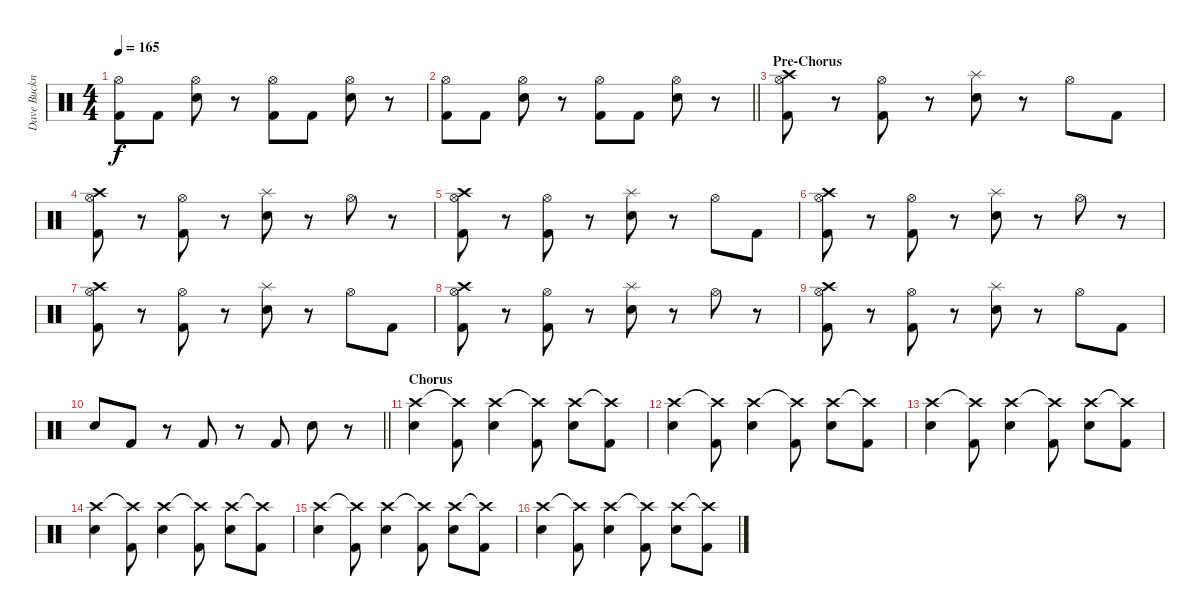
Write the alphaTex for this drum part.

\track ("Dave Buckner " "Dave Buckn") {instrument percussion}
\staff {score}
\articulation defaults
\ts (4 4)
\tempo 165
\clef neutral
\ks c
("Hi-Hat (open)" "Kick (hit) 2").8{dy f} "Kick (hit) 2".8 ("Hi-Hat (open)" "Snare (hit) 2").8 r.8 ("Hi-Hat (open)" "Kick (hit) 2").8 "Kick (hit) 2".8 ("Hi-Hat (open)" "Snare (hit) 2").8 r.8 |
\barLineRight lightlight
("Hi-Hat (open)" "Kick (hit) 2").8 "Kick (hit) 2".8 ("Hi-Hat (open)" "Snare (hit) 2").8 r.8 ("Hi-Hat (open)" "Kick (hit) 2").8 "Kick (hit) 2".8 ("Hi-Hat (open)" "Snare (hit) 2").8 r.8 |
\section ("" "Pre-Chorus")
("Crash high (hit)" "Hi-Hat (open)" "Kick (hit) 2").8 r.8 ("Hi-Hat (open)" "Kick (hit) 2").8 r.8 ("Splash (hit)" "Snare (hit) 2").8 r.8 "Hi-Hat (open)".8 "Kick (hit) 2".8 |
("Crash high (hit)" "Hi-Hat (open)" "Kick (hit) 2").8 r.8 ("Hi-Hat (open)" "Kick (hit) 2").8 r.8 ("Splash (hit)" "Snare (hit) 2").8 r.8 "Hi-Hat (open)".8 r.8 |
("Crash high (hit)" "Hi-Hat (open)" "Kick (hit) 2").8 r.8 ("Hi-Hat (open)" "Kick (hit) 2").8 r.8 ("Splash (hit)" "Snare (hit) 2").8 r.8 "Hi-Hat (open)".8 "Kick (hit) 2".8 |
("Crash high (hit)" "Hi-Hat (open)" "Kick (hit) 2").8 r.8 ("Hi-Hat (open)" "Kick (hit) 2").8 r.8 ("Splash (hit)" "Snare (hit) 2").8 r.8 "Hi-Hat (open)".8 r.8 |
("Crash high (hit)" "Hi-Hat (open)" "Kick (hit) 2").8 r.8 ("Hi-Hat (open)" "Kick (hit) 2").8 r.8 ("Splash (hit)" "Snare (hit) 2").8 r.8 "Hi-Hat (open)".8 "Kick (hit) 2".8 |
("Crash high (hit)" "Hi-Hat (open)" "Kick (hit) 2").8 r.8 ("Hi-Hat (open)" "Kick (hit) 2").8 r.8 ("Splash (hit)" "Snare (hit) 2").8 r.8 "Hi-Hat (open)".8 r.8 |
("Crash high (hit)" "Hi-Hat (open)" "Kick (hit) 2").8 r.8 ("Hi-Hat (open)" "Kick (hit) 2").8 r.8 ("Splash (hit)" "Snare (hit) 2").8 r.8 "Hi-Hat (open)".8 "Kick (hit) 2".8 |
\barLineRight lightlight "Snare (hit) 2".8 "Kick (hit) 2".8
r.8 "Kick (hit) 2".8 r.8 "Kick (hit) 2".8 "Snare (hit) 2".8 r.8 |
\section ("" "Chorus")
("Crash high (hit)" "Snare (hit) 2").4 ("Crash high (hit)"{t} "Kick (hit) 2").8 ("Crash high (hit)" "Snare (hit) 2").4 ("Crash high (hit)"{t} "Kick (hit) 2").8 ("Crash high (hit)" "Snare (hit) 2").8 ("Crash high (hit)"{t} "Kick (hit) 2").8 |
("Crash high (hit)" "Snare (hit) 2").4 ("Crash high (hit)"{t} "Kick (hit) 2").8 ("Crash high (hit)" "Snare (hit) 2").4 ("Crash high (hit)"{t} "Kick (hit) 2").8 ("Crash high (hit)" "Snare (hit) 2").8 ("Crash high (hit)"{t} "Kick (hit) 2").8 |
("Crash high (hit)" "Snare (hit) 2").4 ("Crash high (hit)"{t} "Kick (hit) 2").8 ("Crash high (hit)" "Snare (hit) 2").4 ("Crash high (hit)"{t} "Kick (hit) 2").8 ("Crash high (hit)" "Snare (hit) 2").8 ("Crash high (hit)"{t} "Kick (hit) 2").8 |
("Crash high (hit)" "Snare (hit) 2").4 ("Crash high (hit)"{t} "Kick (hit) 2").8 ("Crash high (hit)" "Snare (hit) 2").4 ("Crash high (hit)"{t} "Kick (hit) 2").8 ("Crash high (hit)" "Snare (hit) 2").8 ("Crash high (hit)"{t} "Kick (hit) 2").8 |
("Crash high (hit)" "Snare (hit) 2").4 ("Crash high (hit)"{t} "Kick (hit) 2").8 ("Crash high (hit)" "Snare (hit) 2").4 ("Crash high (hit)"{t} "Kick (hit) 2").8 ("Crash high (hit)" "Snare (hit) 2").8 ("Crash high (hit)"{t} "Kick (hit) 2").8 |
("Crash high (hit)" "Snare (hit) 2").4 ("Crash high (hit)"{t} "Kick (hit) 2").8 ("Crash high (hit)" "Snare (hit) 2").4 ("Crash high (hit)"{t} "Kick (hit) 2").8 ("Crash high (hit)" "Snare (hit) 2").8 ("Crash high (hit)"{t} "Kick (hit) 2").8
